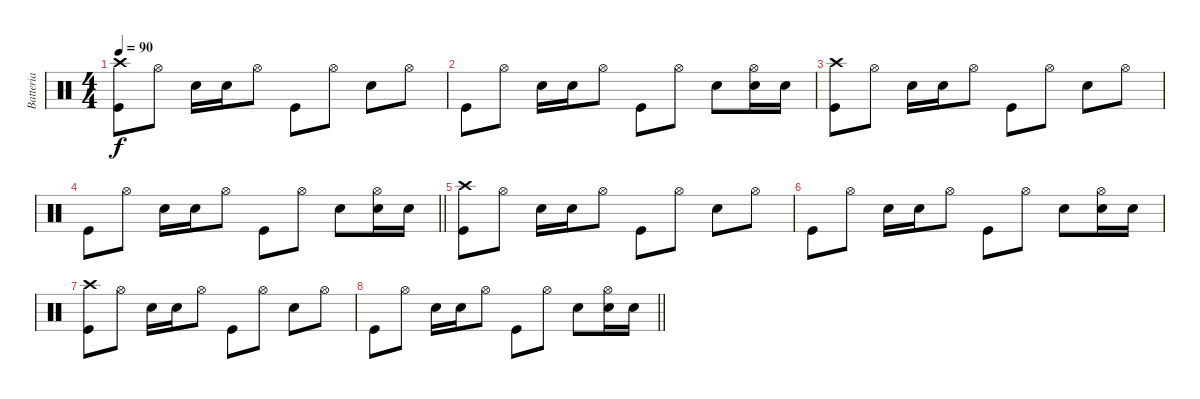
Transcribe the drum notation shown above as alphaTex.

\track ("Batteria" "Batteria") {instrument percussion}
\staff {score}
\articulation defaults
\ts (4 4)
\tempo 90
\clef neutral
\ks c
("Kick (hit)" "Crash high (hit)").8{dy f} "Hi-Hat (open)".8 "Snare (hit) 2".16 "Snare (hit) 2".16 "Hi-Hat (open)".8 "Kick (hit)".8 "Hi-Hat (open)".8 "Snare (hit) 2".8 "Hi-Hat (open)".8 |
"Kick (hit)".8 "Hi-Hat (open)".8 "Snare (hit) 2".16 "Snare (hit) 2".16 "Hi-Hat (open)".8 "Kick (hit)".8 "Hi-Hat (open)".8 "Snare (hit) 2".8 ("Hi-Hat (open)" "Snare (hit) 2").16 "Snare (hit) 2".16 |
("Kick (hit)" "Crash high (hit)").8 "Hi-Hat (open)".8 "Snare (hit) 2".16 "Snare (hit) 2".16 "Hi-Hat (open)".8 "Kick (hit)".8 "Hi-Hat (open)".8 "Snare (hit) 2".8 "Hi-Hat (open)".8 |
\barLineRight lightlight "Kick (hit)".8 "Hi-Hat (open)".8 "Snare (hit) 2".16 "Snare (hit) 2".16 "Hi-Hat (open)".8 "Kick (hit)".8 "Hi-Hat (open)".8 "Snare (hit) 2".8
("Hi-Hat (open)" "Snare (hit) 2").16 "Snare (hit) 2".16 |
("Kick (hit)" "Crash high (hit)").8 "Hi-Hat (open)".8 "Snare (hit) 2".16 "Snare (hit) 2".16 "Hi-Hat (open)".8 "Kick (hit)".8 "Hi-Hat (open)".8 "Snare (hit) 2".8 "Hi-Hat (open)".8 |
"Kick (hit)".8 "Hi-Hat (open)".8 "Snare (hit) 2".16 "Snare (hit) 2".16 "Hi-Hat (open)".8 "Kick (hit)".8 "Hi-Hat (open)".8 "Snare (hit) 2".8 ("Hi-Hat (open)" "Snare (hit) 2").16 "Snare (hit) 2".16 |
("Kick (hit)" "Crash high (hit)").8 "Hi-Hat (open)".8 "Snare (hit) 2".16 "Snare (hit) 2".16 "Hi-Hat (open)".8 "Kick (hit)".8 "Hi-Hat (open)".8 "Snare (hit) 2".8 "Hi-Hat (open)".8 |
\barLineRight lightlight "Kick (hit)".8 "Hi-Hat (open)".8 "Snare (hit) 2".16 "Snare (hit) 2".16 "Hi-Hat (open)".8 "Kick (hit)".8 "Hi-Hat (open)".8 "Snare (hit) 2".8
("Hi-Hat (open)" "Snare (hit) 2").16 "Snare (hit) 2".16
